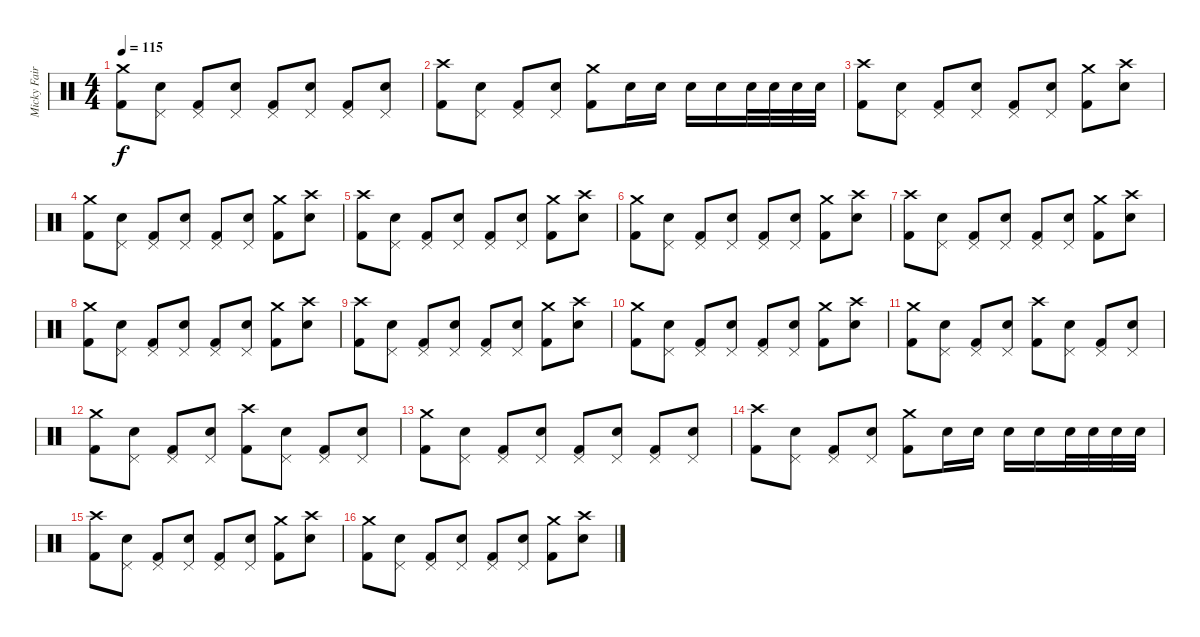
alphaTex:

\track ("Micky Fairbairn - Drums" "Micky Fair") {instrument percussion}
\staff {score}
\articulation defaults
\ts (4 4)
\tempo 115
\clef neutral
\ks c
("Crash medium (hit)" "Kick (hit) 2").8{dy f} ("Pedal Hi-Hat (hit)" "Snare (hit) 2").8 ("Pedal Hi-Hat (hit)" "Kick (hit) 2").8 ("Pedal Hi-Hat (hit)" "Snare (hit) 2").8 ("Pedal Hi-Hat (hit)" "Kick (hit) 2").8 ("Pedal Hi-Hat (hit)" "Snare (hit) 2").8 ("Pedal Hi-Hat (hit)" "Kick (hit) 2").8 ("Pedal Hi-Hat (hit)" "Snare (hit) 2").8 |
("Crash high (hit)" "Kick (hit) 2").8 ("Pedal Hi-Hat (hit)" "Snare (hit) 2").8 ("Pedal Hi-Hat (hit)" "Kick (hit) 2").8 ("Pedal Hi-Hat (hit)" "Snare (hit) 2").8 ("Crash medium (hit)" "Kick (hit) 2").8 "Snare (hit) 2".16 "Snare (hit) 2".16 "Snare (hit) 2".16 "Snare (hit) 2".16 "Snare (hit) 2".32 "Snare (hit) 2".32 "Snare (hit) 2".32 "Snare (hit) 2".32 |
("Crash high (hit)" "Kick (hit) 2").8 ("Pedal Hi-Hat (hit)" "Snare (hit) 2").8 ("Pedal Hi-Hat (hit)" "Kick (hit) 2").8 ("Pedal Hi-Hat (hit)" "Snare (hit) 2").8 ("Pedal Hi-Hat (hit)" "Kick (hit) 2").8 ("Pedal Hi-Hat (hit)" "Snare (hit) 2").8 ("Crash medium (hit)" "Kick (hit) 2").8 ("Crash high (hit)" "Snare (hit) 2").8 |
("Crash medium (hit)" "Kick (hit) 2").8 ("Pedal Hi-Hat (hit)" "Snare (hit) 2").8 ("Pedal Hi-Hat (hit)" "Kick (hit) 2").8 ("Pedal Hi-Hat (hit)" "Snare (hit) 2").8 ("Pedal Hi-Hat (hit)" "Kick (hit) 2").8 ("Pedal Hi-Hat (hit)" "Snare (hit) 2").8 ("Crash medium (hit)" "Kick (hit) 2").8 ("Crash high (hit)" "Snare (hit) 2").8 |
("Crash high (hit)" "Kick (hit) 2").8 ("Pedal Hi-Hat (hit)" "Snare (hit) 2").8 ("Pedal Hi-Hat (hit)" "Kick (hit) 2").8 ("Pedal Hi-Hat (hit)" "Snare (hit) 2").8 ("Pedal Hi-Hat (hit)" "Kick (hit) 2").8 ("Pedal Hi-Hat (hit)" "Snare (hit) 2").8 ("Crash medium (hit)" "Kick (hit) 2").8 ("Crash high (hit)" "Snare (hit) 2").8 |
("Crash medium (hit)" "Kick (hit) 2").8 ("Pedal Hi-Hat (hit)" "Snare (hit) 2").8 ("Pedal Hi-Hat (hit)" "Kick (hit) 2").8 ("Pedal Hi-Hat (hit)" "Snare (hit) 2").8 ("Pedal Hi-Hat (hit)" "Kick (hit) 2").8 ("Pedal Hi-Hat (hit)" "Snare (hit) 2").8 ("Crash medium (hit)" "Kick (hit) 2").8 ("Crash high (hit)" "Snare (hit) 2").8 |
("Crash high (hit)" "Kick (hit) 2").8 ("Pedal Hi-Hat (hit)" "Snare (hit) 2").8 ("Pedal Hi-Hat (hit)" "Kick (hit) 2").8 ("Pedal Hi-Hat (hit)" "Snare (hit) 2").8 ("Pedal Hi-Hat (hit)" "Kick (hit) 2").8 ("Pedal Hi-Hat (hit)" "Snare (hit) 2").8 ("Crash medium (hit)" "Kick (hit) 2").8 ("Crash high (hit)" "Snare (hit) 2").8 |
("Crash medium (hit)" "Kick (hit) 2").8 ("Pedal Hi-Hat (hit)" "Snare (hit) 2").8 ("Pedal Hi-Hat (hit)" "Kick (hit) 2").8 ("Pedal Hi-Hat (hit)" "Snare (hit) 2").8 ("Pedal Hi-Hat (hit)" "Kick (hit) 2").8 ("Pedal Hi-Hat (hit)" "Snare (hit) 2").8 ("Crash medium (hit)" "Kick (hit) 2").8 ("Crash high (hit)" "Snare (hit) 2").8 |
("Crash high (hit)" "Kick (hit) 2").8 ("Pedal Hi-Hat (hit)" "Snare (hit) 2").8 ("Pedal Hi-Hat (hit)" "Kick (hit) 2").8 ("Pedal Hi-Hat (hit)" "Snare (hit) 2").8 ("Pedal Hi-Hat (hit)" "Kick (hit) 2").8 ("Pedal Hi-Hat (hit)" "Snare (hit) 2").8 ("Crash medium (hit)" "Kick (hit) 2").8 ("Crash high (hit)" "Snare (hit) 2").8 |
("Crash medium (hit)" "Kick (hit) 2").8 ("Pedal Hi-Hat (hit)" "Snare (hit) 2").8 ("Pedal Hi-Hat (hit)" "Kick (hit) 2").8 ("Pedal Hi-Hat (hit)" "Snare (hit) 2").8 ("Pedal Hi-Hat (hit)" "Kick (hit) 2").8 ("Pedal Hi-Hat (hit)" "Snare (hit) 2").8 ("Crash medium (hit)" "Kick (hit) 2").8 ("Crash high (hit)" "Snare (hit) 2").8 |
("Crash medium (hit)" "Kick (hit) 2").8 ("Pedal Hi-Hat (hit)" "Snare (hit) 2").8 ("Pedal Hi-Hat (hit)" "Kick (hit) 2").8 ("Pedal Hi-Hat (hit)" "Snare (hit) 2").8 ("Crash high (hit)" "Kick (hit) 2").8 ("Pedal Hi-Hat (hit)" "Snare (hit) 2").8 ("Pedal Hi-Hat (hit)" "Kick (hit) 2").8 ("Pedal Hi-Hat (hit)" "Snare (hit) 2").8 |
("Crash medium (hit)" "Kick (hit) 2").8 ("Pedal Hi-Hat (hit)" "Snare (hit) 2").8 ("Pedal Hi-Hat (hit)" "Kick (hit) 2").8 ("Pedal Hi-Hat (hit)" "Snare (hit) 2").8 ("Crash high (hit)" "Kick (hit) 2").8 ("Pedal Hi-Hat (hit)" "Snare (hit) 2").8 ("Pedal Hi-Hat (hit)" "Kick (hit) 2").8 ("Pedal Hi-Hat (hit)" "Snare (hit) 2").8 |
("Crash medium (hit)" "Kick (hit) 2").8 ("Pedal Hi-Hat (hit)" "Snare (hit) 2").8 ("Pedal Hi-Hat (hit)" "Kick (hit) 2").8 ("Pedal Hi-Hat (hit)" "Snare (hit) 2").8 ("Pedal Hi-Hat (hit)" "Kick (hit) 2").8 ("Pedal Hi-Hat (hit)" "Snare (hit) 2").8 ("Pedal Hi-Hat (hit)" "Kick (hit) 2").8 ("Pedal Hi-Hat (hit)" "Snare (hit) 2").8 |
("Crash high (hit)" "Kick (hit) 2").8 ("Pedal Hi-Hat (hit)" "Snare (hit) 2").8 ("Pedal Hi-Hat (hit)" "Kick (hit) 2").8 ("Pedal Hi-Hat (hit)" "Snare (hit) 2").8 ("Crash medium (hit)" "Kick (hit) 2").8 "Snare (hit) 2".16 "Snare (hit) 2".16 "Snare (hit) 2".16 "Snare (hit) 2".16 "Snare (hit) 2".32 "Snare (hit) 2".32 "Snare (hit) 2".32 "Snare (hit) 2".32 |
("Crash high (hit)" "Kick (hit) 2").8 ("Pedal Hi-Hat (hit)" "Snare (hit) 2").8 ("Pedal Hi-Hat (hit)" "Kick (hit) 2").8 ("Pedal Hi-Hat (hit)" "Snare (hit) 2").8 ("Pedal Hi-Hat (hit)" "Kick (hit) 2").8 ("Pedal Hi-Hat (hit)" "Snare (hit) 2").8 ("Crash medium (hit)" "Kick (hit) 2").8 ("Crash high (hit)" "Snare (hit) 2").8 |
("Crash medium (hit)" "Kick (hit) 2").8 ("Pedal Hi-Hat (hit)" "Snare (hit) 2").8 ("Pedal Hi-Hat (hit)" "Kick (hit) 2").8 ("Pedal Hi-Hat (hit)" "Snare (hit) 2").8 ("Pedal Hi-Hat (hit)" "Kick (hit) 2").8 ("Pedal Hi-Hat (hit)" "Snare (hit) 2").8 ("Crash medium (hit)" "Kick (hit) 2").8 ("Crash high (hit)" "Snare (hit) 2").8
